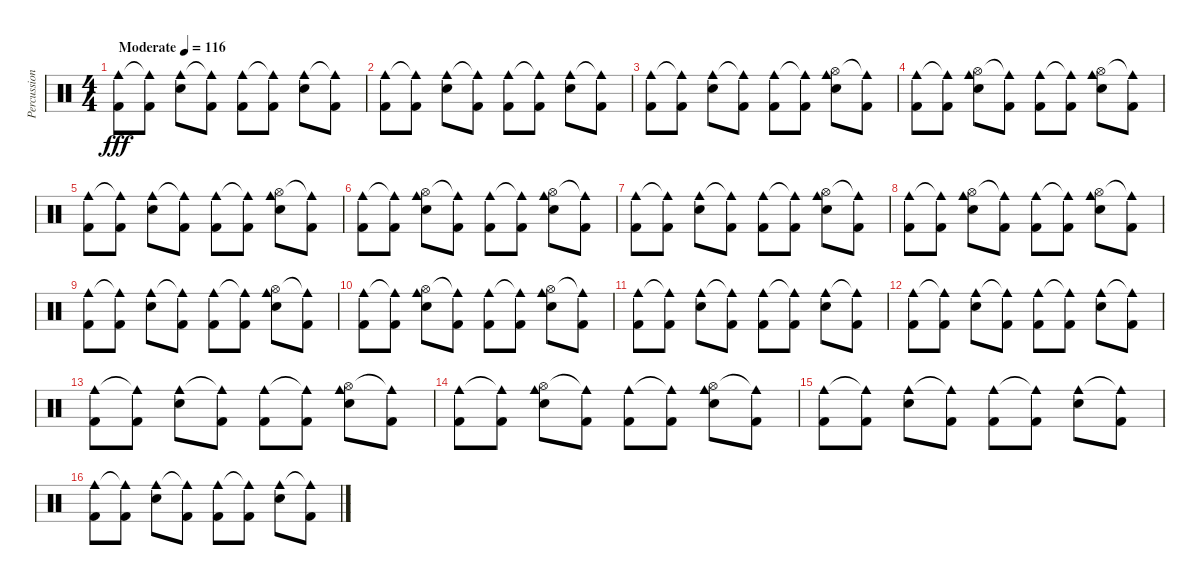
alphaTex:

\track ("Percussion" "Percussion") {instrument percussion}
\staff {score}
\articulation defaults
\ts (4 4)
\tempo (116 "Moderate")
\clef neutral
\ks c
("Cowbell medium (hit)" "Kick (hit) 2").8{dy fff} ("Cowbell medium (hit)"{t} "Kick (hit) 2").8 ("Cowbell medium (hit)" "Electric Snare (hit)").8 ("Cowbell medium (hit)"{t} "Kick (hit) 2").8 ("Cowbell medium (hit)" "Kick (hit) 2").8 ("Cowbell medium (hit)"{t} "Kick (hit) 2").8 ("Cowbell medium (hit)" "Electric Snare (hit)").8 ("Cowbell medium (hit)"{t} "Kick (hit) 2").8 |
("Cowbell medium (hit)" "Kick (hit) 2").8 ("Cowbell medium (hit)"{t} "Kick (hit) 2").8 ("Cowbell medium (hit)" "Electric Snare (hit)").8 ("Cowbell medium (hit)"{t} "Kick (hit) 2").8 ("Cowbell medium (hit)" "Kick (hit) 2").8 ("Cowbell medium (hit)"{t} "Kick (hit) 2").8 ("Cowbell medium (hit)" "Electric Snare (hit)").8 ("Cowbell medium (hit)"{t} "Kick (hit) 2").8 |
("Cowbell medium (hit)" "Kick (hit) 2").8 ("Cowbell medium (hit)"{t} "Kick (hit) 2").8 ("Cowbell medium (hit)" "Electric Snare (hit)").8 ("Cowbell medium (hit)"{t} "Kick (hit) 2").8 ("Cowbell medium (hit)" "Kick (hit) 2").8 ("Cowbell medium (hit)"{t} "Kick (hit) 2").8 ("Hi-Hat (open)" "Cowbell medium (hit)" "Electric Snare (hit)").8 ("Cowbell medium (hit)"{t} "Kick (hit) 2").8 |
("Cowbell medium (hit)" "Kick (hit) 2").8 ("Cowbell medium (hit)"{t} "Kick (hit) 2").8 ("Hi-Hat (open)" "Cowbell medium (hit)" "Electric Snare (hit)").8 ("Cowbell medium (hit)"{t} "Kick (hit) 2").8 ("Cowbell medium (hit)" "Kick (hit) 2").8 ("Cowbell medium (hit)"{t} "Kick (hit) 2").8 ("Hi-Hat (open)" "Cowbell medium (hit)" "Electric Snare (hit)").8 ("Cowbell medium (hit)"{t} "Kick (hit) 2").8 |
("Cowbell medium (hit)" "Kick (hit) 2").8 ("Cowbell medium (hit)"{t} "Kick (hit) 2").8 ("Cowbell medium (hit)" "Electric Snare (hit)").8 ("Cowbell medium (hit)"{t} "Kick (hit) 2").8 ("Cowbell medium (hit)" "Kick (hit) 2").8 ("Cowbell medium (hit)"{t} "Kick (hit) 2").8 ("Hi-Hat (open)" "Cowbell medium (hit)" "Electric Snare (hit)").8 ("Cowbell medium (hit)"{t} "Kick (hit) 2").8 |
("Cowbell medium (hit)" "Kick (hit) 2").8 ("Cowbell medium (hit)"{t} "Kick (hit) 2").8 ("Hi-Hat (open)" "Cowbell medium (hit)" "Electric Snare (hit)").8 ("Cowbell medium (hit)"{t} "Kick (hit) 2").8 ("Cowbell medium (hit)" "Kick (hit) 2").8 ("Cowbell medium (hit)"{t} "Kick (hit) 2").8 ("Hi-Hat (open)" "Cowbell medium (hit)" "Electric Snare (hit)").8 ("Cowbell medium (hit)"{t} "Kick (hit) 2").8 |
("Cowbell medium (hit)" "Kick (hit) 2").8 ("Cowbell medium (hit)"{t} "Kick (hit) 2").8 ("Cowbell medium (hit)" "Electric Snare (hit)").8 ("Cowbell medium (hit)"{t} "Kick (hit) 2").8 ("Cowbell medium (hit)" "Kick (hit) 2").8 ("Cowbell medium (hit)"{t} "Kick (hit) 2").8 ("Hi-Hat (open)" "Cowbell medium (hit)" "Electric Snare (hit)").8 ("Cowbell medium (hit)"{t} "Kick (hit) 2").8 |
("Cowbell medium (hit)" "Kick (hit) 2").8 ("Cowbell medium (hit)"{t} "Kick (hit) 2").8 ("Hi-Hat (open)" "Cowbell medium (hit)" "Electric Snare (hit)").8 ("Cowbell medium (hit)"{t} "Kick (hit) 2").8 ("Cowbell medium (hit)" "Kick (hit) 2").8 ("Cowbell medium (hit)"{t} "Kick (hit) 2").8 ("Hi-Hat (open)" "Cowbell medium (hit)" "Electric Snare (hit)").8 ("Cowbell medium (hit)"{t} "Kick (hit) 2").8 |
("Cowbell medium (hit)" "Kick (hit) 2").8 ("Cowbell medium (hit)"{t} "Kick (hit) 2").8 ("Cowbell medium (hit)" "Electric Snare (hit)").8 ("Cowbell medium (hit)"{t} "Kick (hit) 2").8 ("Cowbell medium (hit)" "Kick (hit) 2").8 ("Cowbell medium (hit)"{t} "Kick (hit) 2").8 ("Hi-Hat (open)" "Cowbell medium (hit)" "Electric Snare (hit)").8 ("Cowbell medium (hit)"{t} "Kick (hit) 2").8 |
("Cowbell medium (hit)" "Kick (hit) 2").8 ("Cowbell medium (hit)"{t} "Kick (hit) 2").8 ("Hi-Hat (open)" "Cowbell medium (hit)" "Electric Snare (hit)").8 ("Cowbell medium (hit)"{t} "Kick (hit) 2").8 ("Cowbell medium (hit)" "Kick (hit) 2").8 ("Cowbell medium (hit)"{t} "Kick (hit) 2").8 ("Hi-Hat (open)" "Cowbell medium (hit)" "Electric Snare (hit)").8 ("Cowbell medium (hit)"{t} "Kick (hit) 2").8 |
("Cowbell medium (hit)" "Kick (hit) 2").8 ("Cowbell medium (hit)"{t} "Kick (hit) 2").8 ("Cowbell medium (hit)" "Electric Snare (hit)").8 ("Cowbell medium (hit)"{t} "Kick (hit) 2").8 ("Cowbell medium (hit)" "Kick (hit) 2").8 ("Cowbell medium (hit)"{t} "Kick (hit) 2").8 ("Cowbell medium (hit)" "Electric Snare (hit)").8 ("Cowbell medium (hit)"{t} "Kick (hit) 2").8 |
("Cowbell medium (hit)" "Kick (hit) 2").8 ("Cowbell medium (hit)"{t} "Kick (hit) 2").8 ("Cowbell medium (hit)" "Electric Snare (hit)").8 ("Cowbell medium (hit)"{t} "Kick (hit) 2").8 ("Cowbell medium (hit)" "Kick (hit) 2").8 ("Cowbell medium (hit)"{t} "Kick (hit) 2").8 ("Cowbell medium (hit)" "Electric Snare (hit)").8 ("Cowbell medium (hit)"{t} "Kick (hit) 2").8 |
("Cowbell medium (hit)" "Kick (hit) 2").8 ("Cowbell medium (hit)"{t} "Kick (hit) 2").8 ("Cowbell medium (hit)" "Electric Snare (hit)").8 ("Cowbell medium (hit)"{t} "Kick (hit) 2").8 ("Cowbell medium (hit)" "Kick (hit) 2").8 ("Cowbell medium (hit)"{t} "Kick (hit) 2").8 ("Hi-Hat (open)" "Cowbell medium (hit)" "Electric Snare (hit)").8 ("Cowbell medium (hit)"{t} "Kick (hit) 2").8 |
("Cowbell medium (hit)" "Kick (hit) 2").8 ("Cowbell medium (hit)"{t} "Kick (hit) 2").8 ("Hi-Hat (open)" "Cowbell medium (hit)" "Electric Snare (hit)").8 ("Cowbell medium (hit)"{t} "Kick (hit) 2").8 ("Cowbell medium (hit)" "Kick (hit) 2").8 ("Cowbell medium (hit)"{t} "Kick (hit) 2").8 ("Hi-Hat (open)" "Cowbell medium (hit)" "Electric Snare (hit)").8 ("Cowbell medium (hit)"{t} "Kick (hit) 2").8 |
("Cowbell medium (hit)" "Kick (hit) 2").8 ("Cowbell medium (hit)"{t} "Kick (hit) 2").8 ("Cowbell medium (hit)" "Electric Snare (hit)").8 ("Cowbell medium (hit)"{t} "Kick (hit) 2").8 ("Cowbell medium (hit)" "Kick (hit) 2").8 ("Cowbell medium (hit)"{t} "Kick (hit) 2").8 ("Cowbell medium (hit)" "Electric Snare (hit)").8 ("Cowbell medium (hit)"{t} "Kick (hit) 2").8 |
("Cowbell medium (hit)" "Kick (hit) 2").8 ("Cowbell medium (hit)"{t} "Kick (hit) 2").8 ("Cowbell medium (hit)" "Electric Snare (hit)").8 ("Cowbell medium (hit)"{t} "Kick (hit) 2").8 ("Cowbell medium (hit)" "Kick (hit) 2").8 ("Cowbell medium (hit)"{t} "Kick (hit) 2").8 ("Cowbell medium (hit)" "Electric Snare (hit)").8 ("Cowbell medium (hit)"{t} "Kick (hit) 2").8
